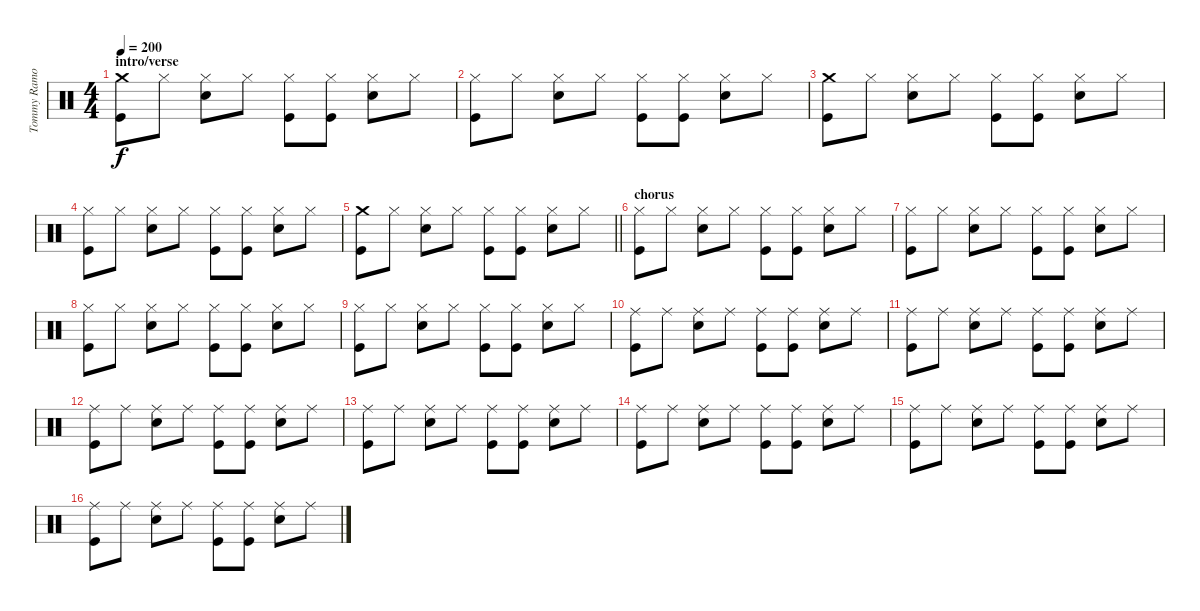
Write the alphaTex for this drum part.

\track ("Tommy Ramone" "Tommy Ramo") {instrument percussion}
\staff {score}
\articulation defaults
\ts (4 4)
\section ("" "intro/verse")
\tempo 200
\clef neutral
\ks c
("Crash medium (hit)" "Kick (hit)").8{dy f} "Hi-Hat (closed)".8 ("Hi-Hat (closed)" "Electric Snare (hit)").8 "Hi-Hat (closed)".8 ("Hi-Hat (closed)" "Kick (hit)").8 ("Hi-Hat (closed)" "Kick (hit)").8 ("Hi-Hat (closed)" "Electric Snare (hit)").8 "Hi-Hat (closed)".8 |
("Hi-Hat (closed)" "Kick (hit)").8 "Hi-Hat (closed)".8 ("Hi-Hat (closed)" "Electric Snare (hit)").8 "Hi-Hat (closed)".8 ("Hi-Hat (closed)" "Kick (hit)").8 ("Hi-Hat (closed)" "Kick (hit)").8 ("Hi-Hat (closed)" "Electric Snare (hit)").8 "Hi-Hat (closed)".8 |
("Crash medium (hit)" "Kick (hit)").8 "Hi-Hat (closed)".8 ("Hi-Hat (closed)" "Electric Snare (hit)").8 "Hi-Hat (closed)".8 ("Hi-Hat (closed)" "Kick (hit)").8 ("Hi-Hat (closed)" "Kick (hit)").8 ("Hi-Hat (closed)" "Electric Snare (hit)").8 "Hi-Hat (closed)".8 |
("Hi-Hat (closed)" "Kick (hit)").8 "Hi-Hat (closed)".8 ("Hi-Hat (closed)" "Electric Snare (hit)").8 "Hi-Hat (closed)".8 ("Hi-Hat (closed)" "Kick (hit)").8 ("Hi-Hat (closed)" "Kick (hit)").8 ("Hi-Hat (closed)" "Electric Snare (hit)").8 "Hi-Hat (closed)".8 |
\barLineRight lightlight
("Crash medium (hit)" "Kick (hit)").8 "Hi-Hat (closed)".8 ("Hi-Hat (closed)" "Electric Snare (hit)").8 "Hi-Hat (closed)".8 ("Hi-Hat (closed)" "Kick (hit)").8 ("Hi-Hat (closed)" "Kick (hit)").8 ("Hi-Hat (closed)" "Electric Snare (hit)").8 "Hi-Hat (closed)".8 |
\section ("" "chorus")
("Hi-Hat (closed)" "Kick (hit)").8 "Hi-Hat (closed)".8 ("Hi-Hat (closed)" "Electric Snare (hit)").8 "Hi-Hat (closed)".8 ("Hi-Hat (closed)" "Kick (hit)").8 ("Hi-Hat (closed)" "Kick (hit)").8 ("Hi-Hat (closed)" "Electric Snare (hit)").8 "Hi-Hat (closed)".8 |
("Hi-Hat (closed)" "Kick (hit)").8 "Hi-Hat (closed)".8 ("Hi-Hat (closed)" "Electric Snare (hit)").8 "Hi-Hat (closed)".8 ("Hi-Hat (closed)" "Kick (hit)").8 ("Hi-Hat (closed)" "Kick (hit)").8 ("Hi-Hat (closed)" "Electric Snare (hit)").8 "Hi-Hat (closed)".8 |
("Hi-Hat (closed)" "Kick (hit)").8 "Hi-Hat (closed)".8 ("Hi-Hat (closed)" "Electric Snare (hit)").8 "Hi-Hat (closed)".8 ("Hi-Hat (closed)" "Kick (hit)").8 ("Hi-Hat (closed)" "Kick (hit)").8 ("Hi-Hat (closed)" "Electric Snare (hit)").8 "Hi-Hat (closed)".8 |
("Hi-Hat (closed)" "Kick (hit)").8 "Hi-Hat (closed)".8 ("Hi-Hat (closed)" "Electric Snare (hit)").8 "Hi-Hat (closed)".8 ("Hi-Hat (closed)" "Kick (hit)").8 ("Hi-Hat (closed)" "Kick (hit)").8 ("Hi-Hat (closed)" "Electric Snare (hit)").8 "Hi-Hat (closed)".8 |
("Ride (middle)" "Kick (hit)").8 "Ride (middle)".8 ("Ride (middle)" "Electric Snare (hit)").8 "Ride (middle)".8 ("Ride (middle)" "Kick (hit)").8 ("Ride (middle)" "Kick (hit)").8 ("Ride (middle)" "Electric Snare (hit)").8 "Ride (middle)".8 |
("Ride (middle)" "Kick (hit)").8 "Ride (middle)".8 ("Ride (middle)" "Electric Snare (hit)").8 "Ride (middle)".8 ("Ride (middle)" "Kick (hit)").8 ("Ride (middle)" "Kick (hit)").8 ("Ride (middle)" "Electric Snare (hit)").8 "Ride (middle)".8 |
("Ride (middle)" "Kick (hit)").8 "Ride (middle)".8 ("Ride (middle)" "Electric Snare (hit)").8 "Ride (middle)".8 ("Ride (middle)" "Kick (hit)").8 ("Ride (middle)" "Kick (hit)").8 ("Ride (middle)" "Electric Snare (hit)").8 "Ride (middle)".8 |
("Ride (middle)" "Kick (hit)").8 "Ride (middle)".8 ("Ride (middle)" "Electric Snare (hit)").8 "Ride (middle)".8 ("Ride (middle)" "Kick (hit)").8 ("Ride (middle)" "Kick (hit)").8 ("Ride (middle)" "Electric Snare (hit)").8 "Ride (middle)".8 |
("Ride (middle)" "Kick (hit)").8 "Ride (middle)".8 ("Ride (middle)" "Electric Snare (hit)").8 "Ride (middle)".8 ("Ride (middle)" "Kick (hit)").8 ("Ride (middle)" "Kick (hit)").8 ("Ride (middle)" "Electric Snare (hit)").8 "Ride (middle)".8 |
("Ride (middle)" "Kick (hit)").8 "Ride (middle)".8 ("Ride (middle)" "Electric Snare (hit)").8 "Ride (middle)".8 ("Ride (middle)" "Kick (hit)").8 ("Ride (middle)" "Kick (hit)").8 ("Ride (middle)" "Electric Snare (hit)").8 "Ride (middle)".8 |
("Ride (middle)" "Kick (hit)").8 "Ride (middle)".8 ("Ride (middle)" "Electric Snare (hit)").8 "Ride (middle)".8 ("Ride (middle)" "Kick (hit)").8 ("Ride (middle)" "Kick (hit)").8 ("Ride (middle)" "Electric Snare (hit)").8 "Ride (middle)".8
